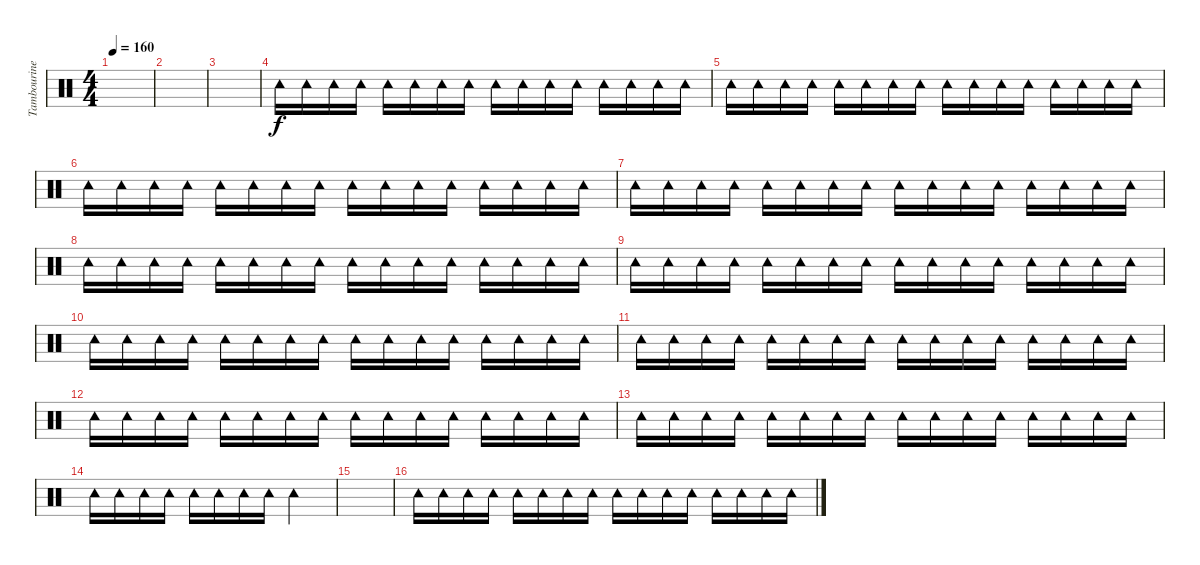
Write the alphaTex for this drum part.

\track ("Tambourine" "Tambourine") {instrument percussion}
\staff {score}
\articulation defaults
\ts (4 4)
\tempo 160
\clef neutral
\ks c
|
|
|
"Tambourine (hit)".16 "Tambourine (hit)".16 "Tambourine (hit)".16 "Tambourine (hit)".16 "Tambourine (hit)".16 "Tambourine (hit)".16 "Tambourine (hit)".16 "Tambourine (hit)".16 "Tambourine (hit)".16 "Tambourine (hit)".16 "Tambourine (hit)".16 "Tambourine (hit)".16 "Tambourine (hit)".16 "Tambourine (hit)".16 "Tambourine (hit)".16 "Tambourine (hit)".16 |
"Tambourine (hit)".16 "Tambourine (hit)".16 "Tambourine (hit)".16 "Tambourine (hit)".16 "Tambourine (hit)".16 "Tambourine (hit)".16 "Tambourine (hit)".16 "Tambourine (hit)".16 "Tambourine (hit)".16 "Tambourine (hit)".16 "Tambourine (hit)".16 "Tambourine (hit)".16 "Tambourine (hit)".16 "Tambourine (hit)".16 "Tambourine (hit)".16 "Tambourine (hit)".16 |
"Tambourine (hit)".16 "Tambourine (hit)".16 "Tambourine (hit)".16 "Tambourine (hit)".16 "Tambourine (hit)".16 "Tambourine (hit)".16 "Tambourine (hit)".16 "Tambourine (hit)".16 "Tambourine (hit)".16 "Tambourine (hit)".16 "Tambourine (hit)".16 "Tambourine (hit)".16 "Tambourine (hit)".16 "Tambourine (hit)".16 "Tambourine (hit)".16 "Tambourine (hit)".16 |
"Tambourine (hit)".16 "Tambourine (hit)".16 "Tambourine (hit)".16 "Tambourine (hit)".16 "Tambourine (hit)".16 "Tambourine (hit)".16 "Tambourine (hit)".16 "Tambourine (hit)".16 "Tambourine (hit)".16 "Tambourine (hit)".16 "Tambourine (hit)".16 "Tambourine (hit)".16 "Tambourine (hit)".16 "Tambourine (hit)".16 "Tambourine (hit)".16 "Tambourine (hit)".16 |
"Tambourine (hit)".16 "Tambourine (hit)".16 "Tambourine (hit)".16 "Tambourine (hit)".16 "Tambourine (hit)".16 "Tambourine (hit)".16 "Tambourine (hit)".16 "Tambourine (hit)".16 "Tambourine (hit)".16 "Tambourine (hit)".16 "Tambourine (hit)".16 "Tambourine (hit)".16 "Tambourine (hit)".16 "Tambourine (hit)".16 "Tambourine (hit)".16 "Tambourine (hit)".16 |
"Tambourine (hit)".16 "Tambourine (hit)".16 "Tambourine (hit)".16 "Tambourine (hit)".16 "Tambourine (hit)".16 "Tambourine (hit)".16 "Tambourine (hit)".16 "Tambourine (hit)".16 "Tambourine (hit)".16 "Tambourine (hit)".16 "Tambourine (hit)".16 "Tambourine (hit)".16 "Tambourine (hit)".16 "Tambourine (hit)".16 "Tambourine (hit)".16 "Tambourine (hit)".16 |
"Tambourine (hit)".16 "Tambourine (hit)".16 "Tambourine (hit)".16 "Tambourine (hit)".16 "Tambourine (hit)".16 "Tambourine (hit)".16 "Tambourine (hit)".16 "Tambourine (hit)".16 "Tambourine (hit)".16 "Tambourine (hit)".16 "Tambourine (hit)".16 "Tambourine (hit)".16 "Tambourine (hit)".16 "Tambourine (hit)".16 "Tambourine (hit)".16 "Tambourine (hit)".16 |
"Tambourine (hit)".16 "Tambourine (hit)".16 "Tambourine (hit)".16 "Tambourine (hit)".16 "Tambourine (hit)".16 "Tambourine (hit)".16 "Tambourine (hit)".16 "Tambourine (hit)".16 "Tambourine (hit)".16 "Tambourine (hit)".16 "Tambourine (hit)".16 "Tambourine (hit)".16 "Tambourine (hit)".16 "Tambourine (hit)".16 "Tambourine (hit)".16 "Tambourine (hit)".16 |
"Tambourine (hit)".16 "Tambourine (hit)".16 "Tambourine (hit)".16 "Tambourine (hit)".16 "Tambourine (hit)".16 "Tambourine (hit)".16 "Tambourine (hit)".16 "Tambourine (hit)".16 "Tambourine (hit)".16 "Tambourine (hit)".16 "Tambourine (hit)".16 "Tambourine (hit)".16 "Tambourine (hit)".16 "Tambourine (hit)".16 "Tambourine (hit)".16 "Tambourine (hit)".16 |
"Tambourine (hit)".16 "Tambourine (hit)".16 "Tambourine (hit)".16 "Tambourine (hit)".16 "Tambourine (hit)".16 "Tambourine (hit)".16 "Tambourine (hit)".16 "Tambourine (hit)".16 "Tambourine (hit)".16 "Tambourine (hit)".16 "Tambourine (hit)".16 "Tambourine (hit)".16 "Tambourine (hit)".16 "Tambourine (hit)".16 "Tambourine (hit)".16 "Tambourine (hit)".16 |
"Tambourine (hit)".16 "Tambourine (hit)".16 "Tambourine (hit)".16 "Tambourine (hit)".16 "Tambourine (hit)".16 "Tambourine (hit)".16 "Tambourine (hit)".16 "Tambourine (hit)".16 "Tambourine (hit)".2 |
|
"Tambourine (hit)".16 "Tambourine (hit)".16 "Tambourine (hit)".16 "Tambourine (hit)".16 "Tambourine (hit)".16 "Tambourine (hit)".16 "Tambourine (hit)".16 "Tambourine (hit)".16 "Tambourine (hit)".16 "Tambourine (hit)".16 "Tambourine (hit)".16 "Tambourine (hit)".16 "Tambourine (hit)".16 "Tambourine (hit)".16 "Tambourine (hit)".16 "Tambourine (hit)".16
